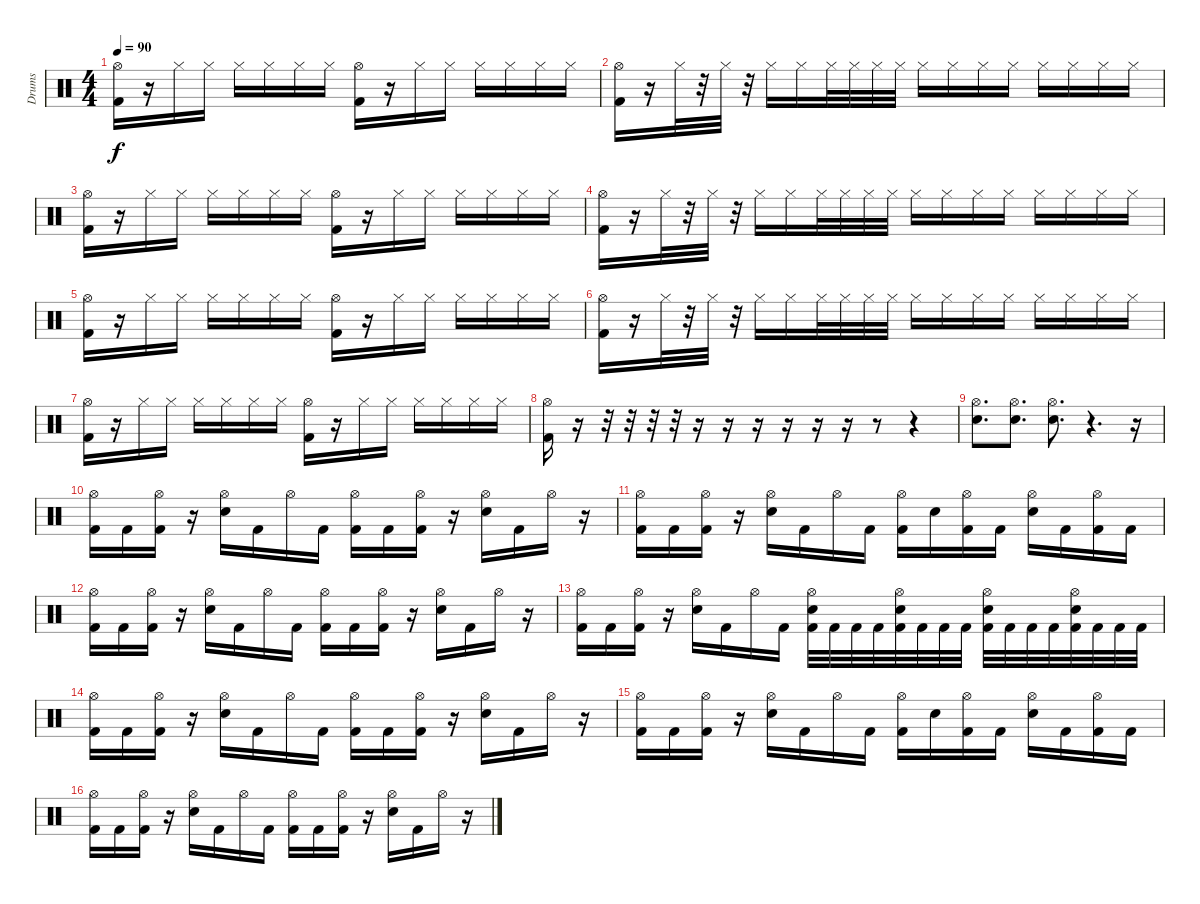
\track ("Drums" "Drums") {instrument percussion}
\staff {score}
\articulation defaults
\ts (4 4)
\tempo 90
\clef neutral
\ks c
("Hi-Hat (open)" "Kick (hit) 2").16{dy f} r.16 "Hi-Hat (closed)".16 "Hi-Hat (closed)".16 "Hi-Hat (closed)".16 "Hi-Hat (closed)".16 "Hi-Hat (closed)".16 "Hi-Hat (closed)".16 ("Hi-Hat (open)" "Kick (hit) 2").16 r.16 "Hi-Hat (closed)".16 "Hi-Hat (closed)".16 "Hi-Hat (closed)".16 "Hi-Hat (closed)".16 "Hi-Hat (closed)".16 "Hi-Hat (closed)".16 |
("Hi-Hat (open)" "Kick (hit) 2").16 r.16 "Hi-Hat (closed)".32 r.32 "Hi-Hat (closed)".32 r.32 "Hi-Hat (closed)".16 "Hi-Hat (closed)".16 "Hi-Hat (closed)".32 "Hi-Hat (closed)".32 "Hi-Hat (closed)".32 "Hi-Hat (closed)".32 "Hi-Hat (closed)".16 "Hi-Hat (closed)".16 "Hi-Hat (closed)".16 "Hi-Hat (closed)".16 "Hi-Hat (closed)".16 "Hi-Hat (closed)".16 "Hi-Hat (closed)".16 "Hi-Hat (closed)".16 |
("Hi-Hat (open)" "Kick (hit) 2").16 r.16 "Hi-Hat (closed)".16 "Hi-Hat (closed)".16 "Hi-Hat (closed)".16 "Hi-Hat (closed)".16 "Hi-Hat (closed)".16 "Hi-Hat (closed)".16 ("Hi-Hat (open)" "Kick (hit) 2").16 r.16 "Hi-Hat (closed)".16 "Hi-Hat (closed)".16 "Hi-Hat (closed)".16 "Hi-Hat (closed)".16 "Hi-Hat (closed)".16 "Hi-Hat (closed)".16 |
("Hi-Hat (open)" "Kick (hit) 2").16 r.16 "Hi-Hat (closed)".32 r.32 "Hi-Hat (closed)".32 r.32 "Hi-Hat (closed)".16 "Hi-Hat (closed)".16 "Hi-Hat (closed)".32 "Hi-Hat (closed)".32 "Hi-Hat (closed)".32 "Hi-Hat (closed)".32 "Hi-Hat (closed)".16 "Hi-Hat (closed)".16 "Hi-Hat (closed)".16 "Hi-Hat (closed)".16 "Hi-Hat (closed)".16 "Hi-Hat (closed)".16 "Hi-Hat (closed)".16 "Hi-Hat (closed)".16 |
("Hi-Hat (open)" "Kick (hit) 2").16 r.16 "Hi-Hat (closed)".16 "Hi-Hat (closed)".16 "Hi-Hat (closed)".16 "Hi-Hat (closed)".16 "Hi-Hat (closed)".16 "Hi-Hat (closed)".16 ("Hi-Hat (open)" "Kick (hit) 2").16 r.16 "Hi-Hat (closed)".16 "Hi-Hat (closed)".16 "Hi-Hat (closed)".16 "Hi-Hat (closed)".16 "Hi-Hat (closed)".16 "Hi-Hat (closed)".16 |
("Hi-Hat (open)" "Kick (hit) 2").16 r.16 "Hi-Hat (closed)".32 r.32 "Hi-Hat (closed)".32 r.32 "Hi-Hat (closed)".16 "Hi-Hat (closed)".16 "Hi-Hat (closed)".32 "Hi-Hat (closed)".32 "Hi-Hat (closed)".32 "Hi-Hat (closed)".32 "Hi-Hat (closed)".16 "Hi-Hat (closed)".16 "Hi-Hat (closed)".16 "Hi-Hat (closed)".16 "Hi-Hat (closed)".16 "Hi-Hat (closed)".16 "Hi-Hat (closed)".16 "Hi-Hat (closed)".16 |
("Hi-Hat (open)" "Kick (hit) 2").16 r.16 "Hi-Hat (closed)".16 "Hi-Hat (closed)".16 "Hi-Hat (closed)".16 "Hi-Hat (closed)".16 "Hi-Hat (closed)".16 "Hi-Hat (closed)".16 ("Hi-Hat (open)" "Kick (hit) 2").16 r.16 "Hi-Hat (closed)".16 "Hi-Hat (closed)".16 "Hi-Hat (closed)".16 "Hi-Hat (closed)".16 "Hi-Hat (closed)".16 "Hi-Hat (closed)".16 |
("Hi-Hat (open)" "Kick (hit) 2").16 r.16 r.32 r.32 r.32 r.32 r.16 r.16 r.16 r.16 r.16 r.16 r.8 r.4 |
("Hi-Hat (open)" "Snare (hit) 2").8{d} ("Hi-Hat (open)" "Snare (hit) 2").8{d} ("Hi-Hat (open)" "Snare (hit) 2").8{d} r.4{d} r.16 |
("Hi-Hat (open)" "Kick (hit) 2").16 "Kick (hit) 2".16 ("Hi-Hat (open)" "Kick (hit) 2").16 r.16 ("Hi-Hat (open)" "Snare (hit) 2").16 "Kick (hit) 2".16 "Hi-Hat (open)".16 "Kick (hit) 2".16 ("Hi-Hat (open)" "Kick (hit) 2").16 "Kick (hit) 2".16 ("Hi-Hat (open)" "Kick (hit) 2").16 r.16 ("Hi-Hat (open)" "Snare (hit) 2").16 "Kick (hit) 2".16 "Hi-Hat (open)".16 r.16 |
("Hi-Hat (open)" "Kick (hit) 2").16 "Kick (hit) 2".16 ("Hi-Hat (open)" "Kick (hit) 2").16 r.16 ("Hi-Hat (open)" "Snare (hit) 2").16 "Kick (hit) 2".16 "Hi-Hat (open)".16 "Kick (hit) 2".16 ("Hi-Hat (open)" "Kick (hit) 2").16 "Snare (hit) 2".16 ("Hi-Hat (open)" "Kick (hit) 2").16 "Kick (hit) 2".16 ("Hi-Hat (open)" "Snare (hit) 2").16 "Kick (hit) 2".16 ("Hi-Hat (open)" "Kick (hit) 2").16 "Kick (hit) 2".16 |
("Hi-Hat (open)" "Kick (hit) 2").16 "Kick (hit) 2".16 ("Hi-Hat (open)" "Kick (hit) 2").16 r.16 ("Hi-Hat (open)" "Snare (hit) 2").16 "Kick (hit) 2".16 "Hi-Hat (open)".16 "Kick (hit) 2".16 ("Hi-Hat (open)" "Kick (hit) 2").16 "Kick (hit) 2".16 ("Hi-Hat (open)" "Kick (hit) 2").16 r.16 ("Hi-Hat (open)" "Snare (hit) 2").16 "Kick (hit) 2".16 "Hi-Hat (open)".16 r.16 |
("Hi-Hat (open)" "Kick (hit) 2").16 "Kick (hit) 2".16 ("Hi-Hat (open)" "Kick (hit) 2").16 r.16 ("Hi-Hat (open)" "Snare (hit) 2").16 "Kick (hit) 2".16 "Hi-Hat (open)".16 "Kick (hit) 2".16 ("Hi-Hat (open)" "Snare (hit) 2" "Kick (hit) 2").32 "Kick (hit) 2".32 "Kick (hit) 2".32 "Kick (hit) 2".32 ("Hi-Hat (open)" "Snare (hit) 2" "Kick (hit) 2").32 "Kick (hit) 2".32 "Kick (hit) 2".32 "Kick (hit) 2".32 ("Hi-Hat (open)" "Snare (hit) 2" "Kick (hit) 2").32 "Kick (hit) 2".32 "Kick (hit) 2".32 "Kick (hit) 2".32 ("Hi-Hat (open)" "Snare (hit) 2" "Kick (hit) 2").32 "Kick (hit) 2".32 "Kick (hit) 2".32 "Kick (hit) 2".32 |
("Hi-Hat (open)" "Kick (hit) 2").16 "Kick (hit) 2".16 ("Hi-Hat (open)" "Kick (hit) 2").16 r.16 ("Hi-Hat (open)" "Snare (hit) 2").16 "Kick (hit) 2".16 "Hi-Hat (open)".16 "Kick (hit) 2".16 ("Hi-Hat (open)" "Kick (hit) 2").16 "Kick (hit) 2".16 ("Hi-Hat (open)" "Kick (hit) 2").16 r.16 ("Hi-Hat (open)" "Snare (hit) 2").16 "Kick (hit) 2".16 "Hi-Hat (open)".16 r.16 |
("Hi-Hat (open)" "Kick (hit) 2").16 "Kick (hit) 2".16 ("Hi-Hat (open)" "Kick (hit) 2").16 r.16 ("Hi-Hat (open)" "Snare (hit) 2").16 "Kick (hit) 2".16 "Hi-Hat (open)".16 "Kick (hit) 2".16 ("Hi-Hat (open)" "Kick (hit) 2").16 "Snare (hit) 2".16 ("Hi-Hat (open)" "Kick (hit) 2").16 "Kick (hit) 2".16 ("Hi-Hat (open)" "Snare (hit) 2").16 "Kick (hit) 2".16 ("Hi-Hat (open)" "Kick (hit) 2").16 "Kick (hit) 2".16 |
("Hi-Hat (open)" "Kick (hit) 2").16 "Kick (hit) 2".16 ("Hi-Hat (open)" "Kick (hit) 2").16 r.16 ("Hi-Hat (open)" "Snare (hit) 2").16 "Kick (hit) 2".16 "Hi-Hat (open)".16 "Kick (hit) 2".16 ("Hi-Hat (open)" "Kick (hit) 2").16 "Kick (hit) 2".16 ("Hi-Hat (open)" "Kick (hit) 2").16 r.16 ("Hi-Hat (open)" "Snare (hit) 2").16 "Kick (hit) 2".16 "Hi-Hat (open)".16 r.16
